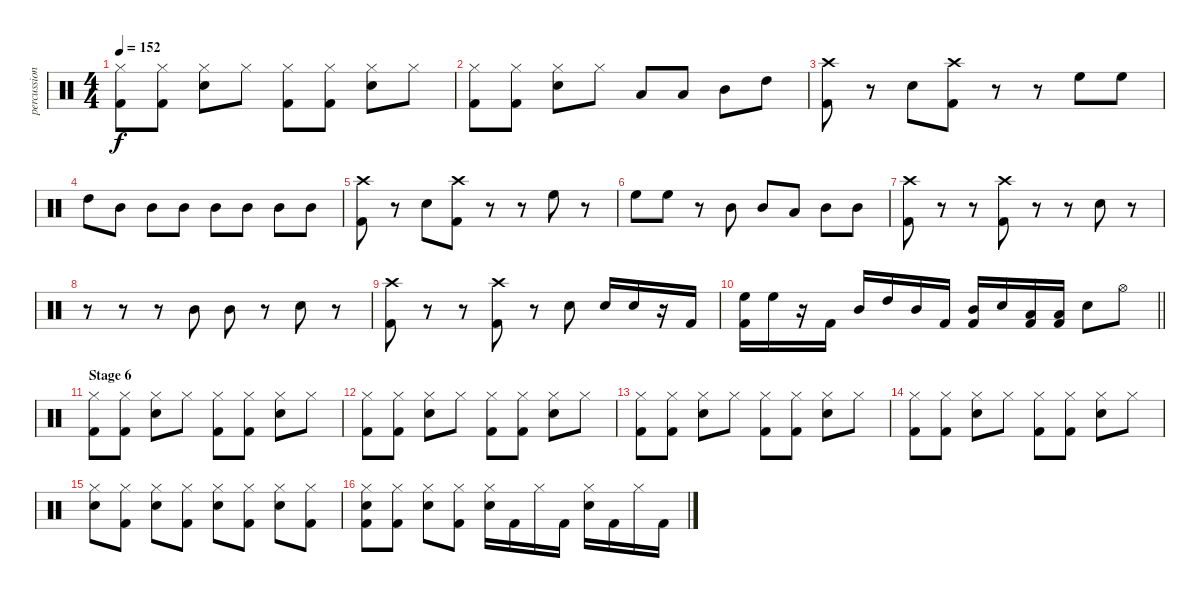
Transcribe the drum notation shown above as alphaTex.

\track ("percussion" "percussion") {instrument percussion}
\staff {score}
\articulation defaults
\ts (4 4)
\tempo 152
\clef neutral
\ks c
("Hi-Hat (closed)" "Kick (hit) 2").8{dy f} ("Hi-Hat (closed)" "Kick (hit) 2").8 ("Electric Snare (hit)" "Hi-Hat (closed)").8 "Hi-Hat (closed)".8 ("Hi-Hat (closed)" "Kick (hit) 2").8 ("Hi-Hat (closed)" "Kick (hit) 2").8 ("Electric Snare (hit)" "Hi-Hat (closed)").8 "Hi-Hat (closed)".8 |
("Hi-Hat (closed)" "Kick (hit) 2").8 ("Hi-Hat (closed)" "Kick (hit) 2").8 ("Electric Snare (hit)" "Hi-Hat (closed)").8 "Hi-Hat (closed)".8 "Low Tom (hit)".8 "Low Tom (hit)".8 "Mid Tom (hit)".8 "High Tom (hit)".8 |
("Crash high (hit)" "Kick (hit) 2").8 r.8 "Electric Snare (hit)".8 ("Crash high (hit)" "Kick (hit) 2").8 r.8 r.8 "High Floor Tom (hit)".8 "High Floor Tom (hit)".8 |
"High Tom (hit)".8 "Mid Tom (hit)".8 "Mid Tom (hit)".8 "Mid Tom (hit)".8 "Mid Tom (hit)".8 "Mid Tom (hit)".8 "Mid Tom (hit)".8 "Mid Tom (hit)".8 |
("Crash high (hit)" "Kick (hit) 2").8 r.8 "Electric Snare (hit)".8 ("Crash high (hit)" "Kick (hit) 2").8 r.8 r.8 "High Floor Tom (hit)".8 r.8 |
"High Floor Tom (hit)".8 "High Floor Tom (hit)".8 r.8 "Mid Tom (hit)".8 "Mid Tom (hit)".8 "Low Tom (hit)".8 "Mid Tom (hit)".8 "Mid Tom (hit)".8 |
("Crash high (hit)" "Kick (hit) 2").8 r.8 r.8 ("Crash high (hit)" "Kick (hit) 2").8 r.8 r.8 "Electric Snare (hit)".8 r.8 |
r.8 r.8 r.8 "Mid Tom (hit)".8 "Mid Tom (hit)".8 r.8 "Electric Snare (hit)".8 r.8 |
("Crash high (hit)" "Kick (hit) 2").8 r.8 r.8 ("Crash high (hit)" "Kick (hit) 2").8 r.8 "Electric Snare (hit)".8 "Electric Snare (hit)".16 "Electric Snare (hit)".16 r.16 "Kick (hit) 2".16 |
\barLineRight lightlight
("High Floor Tom (hit)" "Kick (hit) 2").16 "High Floor Tom (hit)".16 r.16 "Kick (hit) 2".16 "Mid Tom (hit)".16 "High Tom (hit)".16 "Mid Tom (hit)".16 "Kick (hit) 2".16 ("Mid Tom (hit)" "Kick (hit) 2").16 "Electric Snare (hit)".16 ("Low Tom (hit)" "Kick (hit) 2").16 ("Low Tom (hit)" "Kick (hit) 2").16 "Electric Snare (hit)".8 "Hi-Hat (open)".8 |
\section ("" "Stage 6")
("Hi-Hat (closed)" "Kick (hit) 2").8 ("Hi-Hat (closed)" "Kick (hit) 2").8 ("Electric Snare (hit)" "Hi-Hat (closed)").8 "Hi-Hat (closed)".8 ("Hi-Hat (closed)" "Kick (hit) 2").8 ("Hi-Hat (closed)" "Kick (hit) 2").8 ("Electric Snare (hit)" "Hi-Hat (closed)").8 "Hi-Hat (closed)".8 |
("Hi-Hat (closed)" "Kick (hit) 2").8 ("Hi-Hat (closed)" "Kick (hit) 2").8 ("Electric Snare (hit)" "Hi-Hat (closed)").8 "Hi-Hat (closed)".8 ("Hi-Hat (closed)" "Kick (hit) 2").8 ("Hi-Hat (closed)" "Kick (hit) 2").8 ("Electric Snare (hit)" "Hi-Hat (closed)").8 "Hi-Hat (closed)".8 |
("Hi-Hat (closed)" "Kick (hit) 2").8 ("Hi-Hat (closed)" "Kick (hit) 2").8 ("Electric Snare (hit)" "Hi-Hat (closed)").8 "Hi-Hat (closed)".8 ("Hi-Hat (closed)" "Kick (hit) 2").8 ("Hi-Hat (closed)" "Kick (hit) 2").8 ("Electric Snare (hit)" "Hi-Hat (closed)").8 "Hi-Hat (closed)".8 |
("Hi-Hat (closed)" "Kick (hit) 2").8 ("Hi-Hat (closed)" "Kick (hit) 2").8 ("Electric Snare (hit)" "Hi-Hat (closed)").8 "Hi-Hat (closed)".8 ("Hi-Hat (closed)" "Kick (hit) 2").8 ("Hi-Hat (closed)" "Kick (hit) 2").8 ("Electric Snare (hit)" "Hi-Hat (closed)").8 "Hi-Hat (closed)".8 |
("Electric Snare (hit)" "Hi-Hat (closed)").8 ("Hi-Hat (closed)" "Kick (hit) 2").8 ("Electric Snare (hit)" "Hi-Hat (closed)").8 ("Hi-Hat (closed)" "Kick (hit) 2").8 ("Electric Snare (hit)" "Hi-Hat (closed)").8 ("Hi-Hat (closed)" "Kick (hit) 2").8 ("Electric Snare (hit)" "Hi-Hat (closed)").8 ("Hi-Hat (closed)" "Kick (hit) 2").8 |
("Electric Snare (hit)" "Hi-Hat (closed)" "Kick (hit) 2").8 ("Hi-Hat (closed)" "Kick (hit) 2").8 ("Electric Snare (hit)" "Hi-Hat (closed)").8 ("Hi-Hat (closed)" "Kick (hit) 2").8 ("Electric Snare (hit)" "Hi-Hat (closed)").16 "Kick (hit) 2".16 "Hi-Hat (closed)".16 "Kick (hit) 2".16 ("Electric Snare (hit)" "Hi-Hat (closed)").16 "Kick (hit) 2".16 "Hi-Hat (closed)".16 "Kick (hit) 2".16
